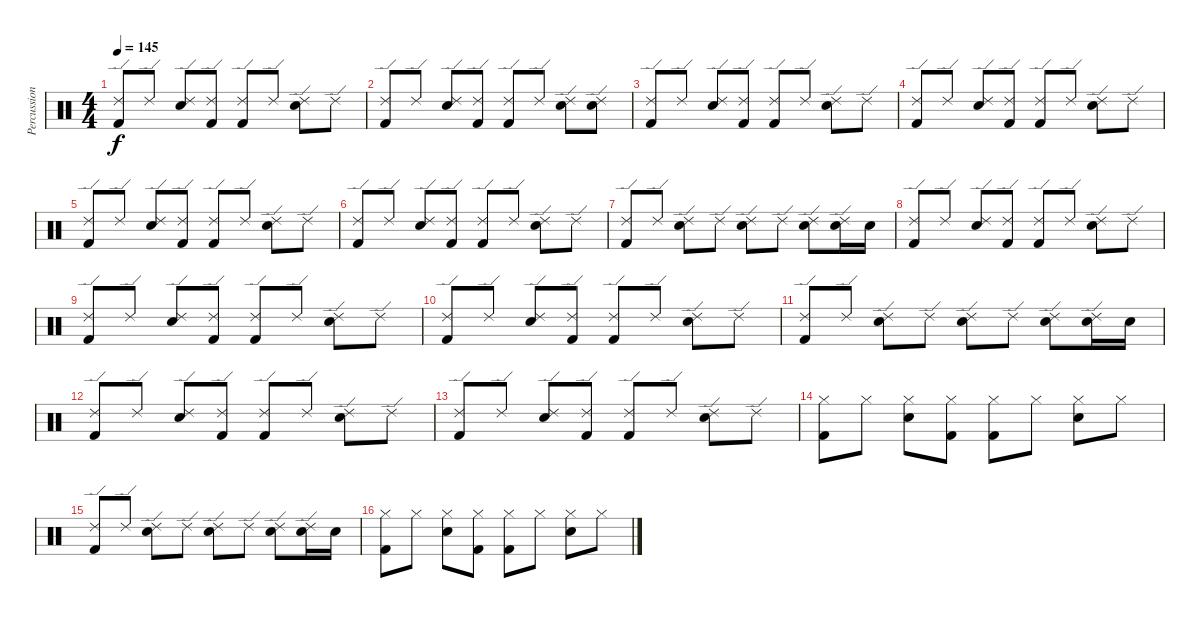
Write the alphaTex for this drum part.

\track ("Percussion" "Percussion") {instrument percussion}
\staff {score}
\articulation defaults
\ts (4 4)
\tempo 145
\clef neutral
\ks c
("Ride (edge) 2" "Kick (hit) 2").8{dy f} "Ride (edge) 2".8 ("Ride (edge) 2" "Electric Snare (hit)").8 ("Ride (edge) 2" "Kick (hit) 2").8 ("Ride (edge) 2" "Kick (hit) 2").8 "Ride (edge) 2".8 ("Ride (edge) 2" "Electric Snare (hit)").8 "Ride (edge) 2".8 |
("Ride (edge) 2" "Kick (hit) 2").8 "Ride (edge) 2".8 ("Ride (edge) 2" "Electric Snare (hit)").8 ("Ride (edge) 2" "Kick (hit) 2").8 ("Ride (edge) 2" "Kick (hit) 2").8 "Ride (edge) 2".8 ("Ride (edge) 2" "Electric Snare (hit)").8 ("Ride (edge) 2" "Electric Snare (hit)").8 |
("Ride (edge) 2" "Kick (hit) 2").8 "Ride (edge) 2".8 ("Ride (edge) 2" "Electric Snare (hit)").8 ("Ride (edge) 2" "Kick (hit) 2").8 ("Ride (edge) 2" "Kick (hit) 2").8 "Ride (edge) 2".8 ("Ride (edge) 2" "Electric Snare (hit)").8 "Ride (edge) 2".8 |
("Ride (edge) 2" "Kick (hit) 2").8 "Ride (edge) 2".8 ("Ride (edge) 2" "Electric Snare (hit)").8 ("Ride (edge) 2" "Kick (hit) 2").8 ("Ride (edge) 2" "Kick (hit) 2").8 "Ride (edge) 2".8 ("Ride (edge) 2" "Electric Snare (hit)").8 "Ride (edge) 2".8 |
("Ride (edge) 2" "Kick (hit) 2").8 "Ride (edge) 2".8 ("Ride (edge) 2" "Electric Snare (hit)").8 ("Ride (edge) 2" "Kick (hit) 2").8 ("Ride (edge) 2" "Kick (hit) 2").8 "Ride (edge) 2".8 ("Ride (edge) 2" "Electric Snare (hit)").8 "Ride (edge) 2".8 |
("Ride (edge) 2" "Kick (hit) 2").8 "Ride (edge) 2".8 ("Ride (edge) 2" "Electric Snare (hit)").8 ("Ride (edge) 2" "Kick (hit) 2").8 ("Ride (edge) 2" "Kick (hit) 2").8 "Ride (edge) 2".8 ("Ride (edge) 2" "Electric Snare (hit)").8 "Ride (edge) 2".8 |
("Ride (edge) 2" "Kick (hit) 2").8 "Ride (edge) 2".8 ("Ride (edge) 2" "Electric Snare (hit)").8 "Ride (edge) 2".8 ("Ride (edge) 2" "Electric Snare (hit)").8 "Ride (edge) 2".8 ("Ride (edge) 2" "Electric Snare (hit)").8 ("Ride (edge) 2" "Electric Snare (hit)").16 "Electric Snare (hit)".16 |
("Ride (edge) 2" "Kick (hit) 2").8 "Ride (edge) 2".8 ("Ride (edge) 2" "Electric Snare (hit)").8 ("Ride (edge) 2" "Kick (hit) 2").8 ("Ride (edge) 2" "Kick (hit) 2").8 "Ride (edge) 2".8 ("Ride (edge) 2" "Electric Snare (hit)").8 "Ride (edge) 2".8 |
("Ride (edge) 2" "Kick (hit) 2").8 "Ride (edge) 2".8 ("Ride (edge) 2" "Electric Snare (hit)").8 ("Ride (edge) 2" "Kick (hit) 2").8 ("Ride (edge) 2" "Kick (hit) 2").8 "Ride (edge) 2".8 ("Ride (edge) 2" "Electric Snare (hit)").8 "Ride (edge) 2".8 |
("Ride (edge) 2" "Kick (hit) 2").8 "Ride (edge) 2".8 ("Ride (edge) 2" "Electric Snare (hit)").8 ("Ride (edge) 2" "Kick (hit) 2").8 ("Ride (edge) 2" "Kick (hit) 2").8 "Ride (edge) 2".8 ("Ride (edge) 2" "Electric Snare (hit)").8 "Ride (edge) 2".8 |
("Ride (edge) 2" "Kick (hit) 2").8 "Ride (edge) 2".8 ("Ride (edge) 2" "Electric Snare (hit)").8 "Ride (edge) 2".8 ("Ride (edge) 2" "Electric Snare (hit)").8 "Ride (edge) 2".8 ("Ride (edge) 2" "Electric Snare (hit)").8 ("Ride (edge) 2" "Electric Snare (hit)").16 "Electric Snare (hit)".16 |
("Ride (edge) 2" "Kick (hit) 2").8 "Ride (edge) 2".8 ("Ride (edge) 2" "Electric Snare (hit)").8 ("Ride (edge) 2" "Kick (hit) 2").8 ("Ride (edge) 2" "Kick (hit) 2").8 "Ride (edge) 2".8 ("Ride (edge) 2" "Electric Snare (hit)").8 "Ride (edge) 2".8 |
("Ride (edge) 2" "Kick (hit) 2").8 "Ride (edge) 2".8 ("Ride (edge) 2" "Electric Snare (hit)").8 ("Ride (edge) 2" "Kick (hit) 2").8 ("Ride (edge) 2" "Kick (hit) 2").8 "Ride (edge) 2".8 ("Ride (edge) 2" "Electric Snare (hit)").8 "Ride (edge) 2".8 |
("Hi-Hat (closed)" "Kick (hit) 2").8 "Hi-Hat (closed)".8 ("Hi-Hat (closed)" "Electric Snare (hit)").8 ("Hi-Hat (closed)" "Kick (hit) 2").8 ("Hi-Hat (closed)" "Kick (hit) 2").8 "Hi-Hat (closed)".8 ("Hi-Hat (closed)" "Electric Snare (hit)").8 "Hi-Hat (closed)".8 |
("Ride (edge) 2" "Kick (hit) 2").8 "Ride (edge) 2".8 ("Ride (edge) 2" "Electric Snare (hit)").8 "Ride (edge) 2".8 ("Ride (edge) 2" "Electric Snare (hit)").8 "Ride (edge) 2".8 ("Ride (edge) 2" "Electric Snare (hit)").8 ("Ride (edge) 2" "Electric Snare (hit)").16 "Electric Snare (hit)".16 |
("Hi-Hat (closed)" "Kick (hit) 2").8 "Hi-Hat (closed)".8 ("Hi-Hat (closed)" "Electric Snare (hit)").8 ("Hi-Hat (closed)" "Kick (hit) 2").8 ("Hi-Hat (closed)" "Kick (hit) 2").8 "Hi-Hat (closed)".8 ("Hi-Hat (closed)" "Electric Snare (hit)").8 "Hi-Hat (closed)".8
